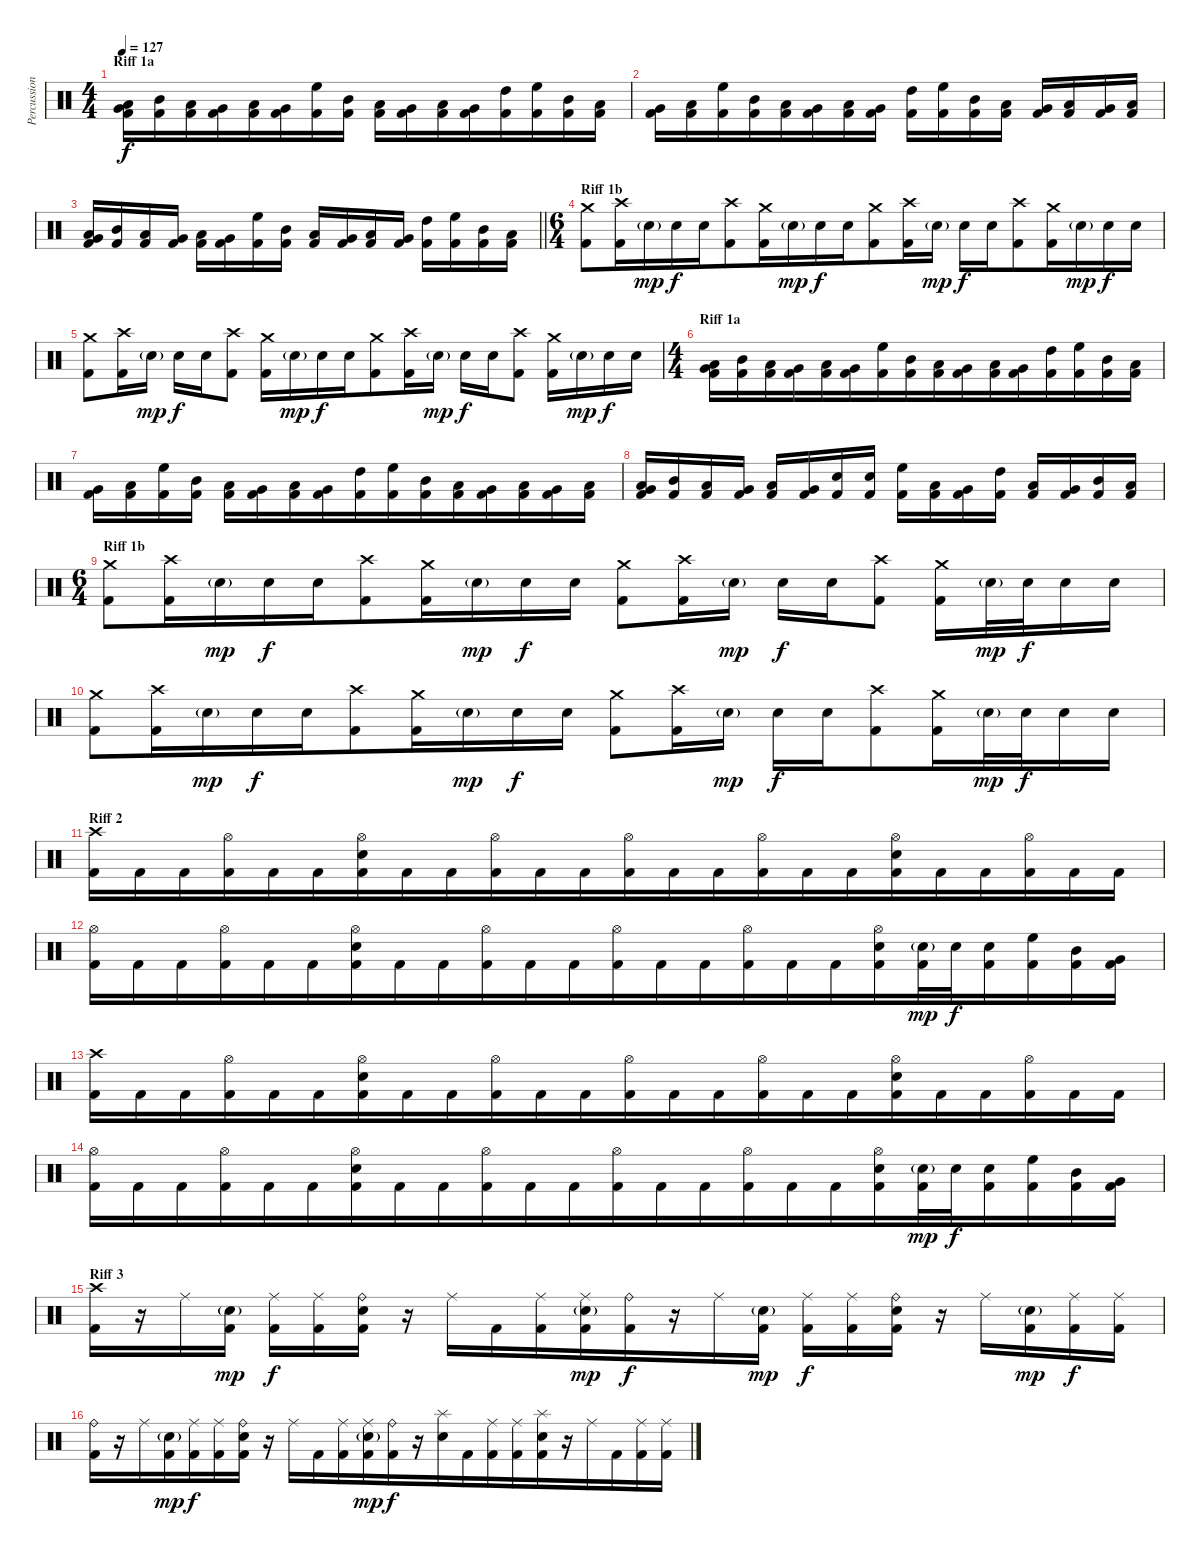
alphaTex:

\track ("Percussion" "Percussion") {instrument percussion}
\staff {score}
\articulation defaults
\ts (4 4)
\section ("" "Riff 1a")
\tempo 127
\clef neutral
\ks c
("Very Low Tom (hit)" "Low Floor Tom (hit)" "Kick (hit) 2").16{dy f} ("Mid Tom (hit)" "Kick (hit) 2").16{beam merge} ("Low Tom (hit)" "Kick (hit) 2").16 ("Very Low Tom (hit)" "Kick (hit) 2").16{beam merge} ("Low Floor Tom (hit)" "Kick (hit) 2").16{beam merge} ("Very Low Tom (hit)" "Kick (hit) 2").16 ("High Floor Tom (hit)" "Kick (hit) 2").16 ("Mid Tom (hit)" "Kick (hit) 2").16 ("Low Tom (hit)" "Kick (hit) 2").16{beam merge} ("Very Low Tom (hit)" "Kick (hit) 2").16 ("Low Floor Tom (hit)" "Kick (hit) 2").16{beam merge} ("Very Low Tom (hit)" "Kick (hit) 2").16{beam merge} ("High Tom (hit)" "Kick (hit) 2").16{beam merge} ("High Floor Tom (hit)" "Kick (hit) 2").16{beam merge} ("Mid Tom (hit)" "Kick (hit) 2").16{beam merge} ("Low Tom (hit)" "Kick (hit) 2").16 |
("Very Low Tom (hit)" "Kick (hit) 2").16{beam merge} ("Low Floor Tom (hit)" "Kick (hit) 2").16 ("High Floor Tom (hit)" "Kick (hit) 2").16{beam merge} ("Mid Tom (hit)" "Kick (hit) 2").16{beam merge} ("Low Tom (hit)" "Kick (hit) 2").16 ("Very Low Tom (hit)" "Kick (hit) 2").16 ("Low Floor Tom (hit)" "Kick (hit) 2").16 ("Very Low Tom (hit)" "Kick (hit) 2").16 ("High Tom (hit)" "Kick (hit) 2").16{beam merge} ("High Floor Tom (hit)" "Kick (hit) 2").16 ("Mid Tom (hit)" "Kick (hit) 2").16 ("Low Tom (hit)" "Kick (hit) 2").16 ("Very Low Tom (hit)" "Kick (hit) 2").16{beam merge} ("Low Floor Tom (hit)" "Kick (hit) 2").16 ("Very Low Tom (hit)" "Kick (hit) 2").16 ("Low Tom (hit)" "Kick (hit) 2").16 |
\barLineRight lightlight
("Very Low Tom (hit)" "Low Floor Tom (hit)" "Kick (hit) 2").16 ("Mid Tom (hit)" "Kick (hit) 2").16 ("Low Tom (hit)" "Kick (hit) 2").16 ("Very Low Tom (hit)" "Kick (hit) 2").16 ("Low Floor Tom (hit)" "Kick (hit) 2").16 ("Very Low Tom (hit)" "Kick (hit) 2").16 ("High Floor Tom (hit)" "Kick (hit) 2").16 ("Mid Tom (hit)" "Kick (hit) 2").16 ("Low Tom (hit)" "Kick (hit) 2").16 ("Very Low Tom (hit)" "Kick (hit) 2").16 ("Low Floor Tom (hit)" "Kick (hit) 2").16 ("Very Low Tom (hit)" "Kick (hit) 2").16 ("High Tom (hit)" "Kick (hit) 2").16 ("High Floor Tom (hit)" "Kick (hit) 2").16 ("Mid Tom (hit)" "Kick (hit) 2").16 ("Low Tom (hit)" "Kick (hit) 2").16 |
\ts (6 4)
\section ("" "Riff 1b")
("Crash medium (hit)" "Kick (hit) 2").8{beam merge} ("Crash high (hit)" "Kick (hit) 2").16{beam merge} "Electric Snare (hit)"{g}.16{dy mp beam merge} "Electric Snare (hit)".16{dy f beam merge} "Electric Snare (hit)".16{beam merge} ("Crash high (hit)" "Kick (hit) 2").8{beam merge} ("Crash medium (hit)" "Kick (hit) 2").16{beam merge} "Electric Snare (hit)"{g}.16{dy mp beam merge} "Electric Snare (hit)".16{dy f beam merge} "Electric Snare (hit)".16{beam merge} ("Crash medium (hit)" "Kick (hit) 2").8{beam merge} ("Crash high (hit)" "Kick (hit) 2").16{beam merge} "Electric Snare (hit)"{g}.16{dy mp} "Electric Snare (hit)".16{dy f} "Electric Snare (hit)".16 ("Crash high (hit)" "Kick (hit) 2").8{beam merge} ("Crash medium (hit)" "Kick (hit) 2").16{beam merge} "Electric Snare (hit)"{g}.16{dy mp} "Electric Snare (hit)".16{dy f} "Electric Snare (hit)".16 |
("Crash medium (hit)" "Kick (hit) 2").8 ("Crash high (hit)" "Kick (hit) 2").16{beam merge} "Electric Snare (hit)"{g}.16{dy mp} "Electric Snare (hit)".16{dy f beam merge} "Electric Snare (hit)".16{beam merge} ("Crash high (hit)" "Kick (hit) 2").8 ("Crash medium (hit)" "Kick (hit) 2").16{beam merge} "Electric Snare (hit)"{g}.16{dy mp beam merge} "Electric Snare (hit)".16{dy f beam merge} "Electric Snare (hit)".16{beam merge} ("Crash medium (hit)" "Kick (hit) 2").8 ("Crash high (hit)" "Kick (hit) 2").16{beam merge} "Electric Snare (hit)"{g}.16{dy mp} "Electric Snare (hit)".16{dy f} "Electric Snare (hit)".16{beam merge} ("Crash high (hit)" "Kick (hit) 2").8 ("Crash medium (hit)" "Kick (hit) 2").16 "Electric Snare (hit)"{g}.16{dy mp beam merge} "Electric Snare (hit)".16{dy f} "Electric Snare (hit)".16 |
\ts (4 4)
\section ("" "Riff 1a")
("Very Low Tom (hit)" "Low Floor Tom (hit)" "Kick (hit) 2").16{beam merge} ("Mid Tom (hit)" "Kick (hit) 2").16{beam merge} ("Low Tom (hit)" "Kick (hit) 2").16 ("Very Low Tom (hit)" "Kick (hit) 2").16{beam merge} ("Low Floor Tom (hit)" "Kick (hit) 2").16 ("Very Low Tom (hit)" "Kick (hit) 2").16{beam merge} ("High Floor Tom (hit)" "Kick (hit) 2").16{beam merge} ("Mid Tom (hit)" "Kick (hit) 2").16{beam merge} ("Low Tom (hit)" "Kick (hit) 2").16 ("Very Low Tom (hit)" "Kick (hit) 2").16{beam merge} ("Low Floor Tom (hit)" "Kick (hit) 2").16{beam merge} ("Very Low Tom (hit)" "Kick (hit) 2").16{beam merge} ("High Tom (hit)" "Kick (hit) 2").16{beam merge} ("High Floor Tom (hit)" "Kick (hit) 2").16{beam merge} ("Mid Tom (hit)" "Kick (hit) 2").16{beam merge} ("Low Tom (hit)" "Kick (hit) 2").16 |
("Very Low Tom (hit)" "Kick (hit) 2").16 ("Low Floor Tom (hit)" "Kick (hit) 2").16{beam merge} ("High Floor Tom (hit)" "Kick (hit) 2").16 ("Mid Tom (hit)" "Kick (hit) 2").16 ("Low Tom (hit)" "Kick (hit) 2").16{beam merge} ("Very Low Tom (hit)" "Kick (hit) 2").16{beam merge} ("Low Floor Tom (hit)" "Kick (hit) 2").16 ("Very Low Tom (hit)" "Kick (hit) 2").16{beam merge} ("High Tom (hit)" "Kick (hit) 2").16{beam merge} ("High Floor Tom (hit)" "Kick (hit) 2").16{beam merge} ("Mid Tom (hit)" "Kick (hit) 2").16{beam merge} ("Low Tom (hit)" "Kick (hit) 2").16{beam merge} ("Very Low Tom (hit)" "Kick (hit) 2").16 ("Low Floor Tom (hit)" "Kick (hit) 2").16 ("Very Low Tom (hit)" "Kick (hit) 2").16{beam merge} ("Low Tom (hit)" "Kick (hit) 2").16 |
("Very Low Tom (hit)" "Low Floor Tom (hit)" "Kick (hit) 2").16{beam merge} ("Mid Tom (hit)" "Kick (hit) 2").16{beam merge} ("Low Tom (hit)" "Kick (hit) 2").16 ("Very Low Tom (hit)" "Kick (hit) 2").16 ("Low Floor Tom (hit)" "Kick (hit) 2").16{beam merge} ("Very Low Tom (hit)" "Kick (hit) 2").16{beam merge} ("Electric Snare (hit)" "Kick (hit) 2").16{beam merge} ("Electric Snare (hit)" "Kick (hit) 2").16 ("High Floor Tom (hit)" "Kick (hit) 2").16{beam merge} ("Low Tom (hit)" "Kick (hit) 2").16 ("Very Low Tom (hit)" "Kick (hit) 2").16{beam merge} ("High Tom (hit)" "Kick (hit) 2").16 ("Low Tom (hit)" "Kick (hit) 2").16 ("Very Low Tom (hit)" "Kick (hit) 2").16{beam merge} ("Mid Tom (hit)" "Kick (hit) 2").16 ("Low Floor Tom (hit)" "Kick (hit) 2").16 |
\ts (6 4)
\section ("" "Riff 1b")
("Crash medium (hit)" "Kick (hit) 2").8{beam merge} ("Crash high (hit)" "Kick (hit) 2").16 "Electric Snare (hit)"{g}.16{dy mp beam merge} "Electric Snare (hit)".16{dy f} "Electric Snare (hit)".16 ("Crash high (hit)" "Kick (hit) 2").8{beam merge} ("Crash medium (hit)" "Kick (hit) 2").16 "Electric Snare (hit)"{g}.16{dy mp beam merge} "Electric Snare (hit)".16{dy f beam merge} "Electric Snare (hit)".16 ("Crash medium (hit)" "Kick (hit) 2").8 ("Crash high (hit)" "Kick (hit) 2").16 "Electric Snare (hit)"{g}.16{dy mp} "Electric Snare (hit)".16{dy f} "Electric Snare (hit)".16{beam merge} ("Crash high (hit)" "Kick (hit) 2").8 ("Crash medium (hit)" "Kick (hit) 2").16{beam merge} "Electric Snare (hit)"{g}.32{dy mp beam merge} "Electric Snare (hit)".32{dy f} "Electric Snare (hit)".16 "Electric Snare (hit)".16 |
("Crash medium (hit)" "Kick (hit) 2").8 ("Crash high (hit)" "Kick (hit) 2").16 "Electric Snare (hit)"{g}.16{dy mp beam merge} "Electric Snare (hit)".16{dy f} "Electric Snare (hit)".16{beam merge} ("Crash high (hit)" "Kick (hit) 2").8{beam merge} ("Crash medium (hit)" "Kick (hit) 2").16{beam merge} "Electric Snare (hit)"{g}.16{dy mp} "Electric Snare (hit)".16{dy f beam merge} "Electric Snare (hit)".16 ("Crash medium (hit)" "Kick (hit) 2").8 ("Crash high (hit)" "Kick (hit) 2").16 "Electric Snare (hit)"{g}.16{dy mp} "Electric Snare (hit)".16{dy f} "Electric Snare (hit)".16{beam merge} ("Crash high (hit)" "Kick (hit) 2").8{beam merge} ("Crash medium (hit)" "Kick (hit) 2").16{beam merge} "Electric Snare (hit)"{g}.32{dy mp} "Electric Snare (hit)".32{dy f} "Electric Snare (hit)".16 "Electric Snare (hit)".16 |
\section ("" "Riff 2")
("Crash high (hit)" "Kick (hit) 2").16{beam merge} "Kick (hit) 2".16{beam merge} "Kick (hit) 2".16 ("Hi-Hat (open)" "Kick (hit) 2").16{beam merge} "Kick (hit) 2".16 "Kick (hit) 2".16{beam merge} ("Hi-Hat (open)" "Electric Snare (hit)" "Kick (hit) 2").16{beam merge} "Kick (hit) 2".16{beam merge} "Kick (hit) 2".16{beam merge} ("Hi-Hat (open)" "Kick (hit) 2").16 "Kick (hit) 2".16{beam merge} "Kick (hit) 2".16{beam merge} ("Hi-Hat (open)" "Kick (hit) 2").16 "Kick (hit) 2".16{beam merge} "Kick (hit) 2".16 ("Hi-Hat (open)" "Kick (hit) 2").16{beam merge} "Kick (hit) 2".16{beam merge} "Kick (hit) 2".16{beam merge} ("Hi-Hat (open)" "Electric Snare (hit)" "Kick (hit) 2").16{beam merge} "Kick (hit) 2".16{beam merge} "Kick (hit) 2".16{beam merge} ("Hi-Hat (open)" "Kick (hit) 2").16{beam merge} "Kick (hit) 2".16{beam merge} "Kick (hit) 2".16 |
("Hi-Hat (open)" "Kick (hit) 2").16{beam merge} "Kick (hit) 2".16{beam merge} "Kick (hit) 2".16{beam merge} ("Hi-Hat (open)" "Kick (hit) 2").16{beam merge} "Kick (hit) 2".16{beam merge} "Kick (hit) 2".16{beam merge} ("Hi-Hat (open)" "Electric Snare (hit)" "Kick (hit) 2").16 "Kick (hit) 2".16{beam merge} "Kick (hit) 2".16{beam merge} ("Hi-Hat (open)" "Kick (hit) 2").16 "Kick (hit) 2".16{beam merge} "Kick (hit) 2".16{beam merge} ("Hi-Hat (open)" "Kick (hit) 2").16{beam merge} "Kick (hit) 2".16{beam merge} "Kick (hit) 2".16{beam merge} ("Hi-Hat (open)" "Kick (hit) 2").16{beam merge} "Kick (hit) 2".16{beam merge} "Kick (hit) 2".16 ("Hi-Hat (open)" "Electric Snare (hit)" "Kick (hit) 2").16{beam merge} ("Electric Snare (hit)"{g} "Kick (hit) 2").32{dy mp beam merge} "Electric Snare (hit)".32{dy f beam merge} ("Electric Snare (hit)" "Kick (hit) 2").16{beam merge} ("High Floor Tom (hit)" "Kick (hit) 2").16{beam merge} ("Mid Tom (hit)" "Kick (hit) 2").16{beam merge} ("Very Low Tom (hit)" "Kick (hit) 2").16 |
("Crash high (hit)" "Kick (hit) 2").16{beam merge} "Kick (hit) 2".16 "Kick (hit) 2".16{beam merge} ("Hi-Hat (open)" "Kick (hit) 2").16{beam merge} "Kick (hit) 2".16{beam merge} "Kick (hit) 2".16{beam merge} ("Hi-Hat (open)" "Electric Snare (hit)" "Kick (hit) 2").16{beam merge} "Kick (hit) 2".16{beam merge} "Kick (hit) 2".16{beam merge} ("Hi-Hat (open)" "Kick (hit) 2").16{beam merge} "Kick (hit) 2".16{beam merge} "Kick (hit) 2".16{beam merge} ("Hi-Hat (open)" "Kick (hit) 2").16{beam merge} "Kick (hit) 2".16{beam merge} "Kick (hit) 2".16{beam merge} ("Hi-Hat (open)" "Kick (hit) 2").16{beam merge} "Kick (hit) 2".16{beam merge} "Kick (hit) 2".16{beam merge} ("Hi-Hat (open)" "Electric Snare (hit)" "Kick (hit) 2").16{beam merge} "Kick (hit) 2".16{beam merge} "Kick (hit) 2".16 ("Hi-Hat (open)" "Kick (hit) 2").16{beam merge} "Kick (hit) 2".16{beam merge} "Kick (hit) 2".16 |
("Hi-Hat (open)" "Kick (hit) 2").16{beam merge} "Kick (hit) 2".16{beam merge} "Kick (hit) 2".16{beam merge} ("Hi-Hat (open)" "Kick (hit) 2").16{beam merge} "Kick (hit) 2".16{beam merge} "Kick (hit) 2".16{beam merge} ("Hi-Hat (open)" "Electric Snare (hit)" "Kick (hit) 2").16{beam merge} "Kick (hit) 2".16{beam merge} "Kick (hit) 2".16{beam merge} ("Hi-Hat (open)" "Kick (hit) 2").16{beam merge} "Kick (hit) 2".16{beam merge} "Kick (hit) 2".16{beam merge} ("Hi-Hat (open)" "Kick (hit) 2").16{beam merge} "Kick (hit) 2".16{beam merge} "Kick (hit) 2".16{beam merge} ("Hi-Hat (open)" "Kick (hit) 2").16{beam merge} "Kick (hit) 2".16{beam merge} "Kick (hit) 2".16{beam merge} ("Hi-Hat (open)" "Electric Snare (hit)" "Kick (hit) 2").16{beam merge} ("Electric Snare (hit)"{g} "Kick (hit) 2").32{dy mp beam merge} "Electric Snare (hit)".32{dy f beam merge} ("Electric Snare (hit)" "Kick (hit) 2").16{beam merge} ("High Floor Tom (hit)" "Kick (hit) 2").16{beam merge} ("Mid Tom (hit)" "Kick (hit) 2").16{beam merge} ("Very Low Tom (hit)" "Kick (hit) 2").16 |
\section ("" "Riff 3")
("Crash high (hit)" "Kick (hit) 2").16 r.16 "Ride (middle)".16{beam merge} ("Electric Snare (hit)"{g} "Kick (hit) 2").16{dy mp} ("Ride (middle)" "Kick (hit) 2").16{dy f} ("Ride (middle)" "Kick (hit) 2").16 ("Ride (bell)" "Electric Snare (hit)" "Kick (hit) 2").16 r.16 "Ride (middle)".16 "Kick (hit) 2".16{beam merge} ("Ride (middle)" "Kick (hit) 2").16 ("Ride (middle)" "Electric Snare (hit)"{g} "Kick (hit) 2").16{dy mp beam merge} ("Ride (bell)" "Kick (hit) 2").16{dy f beam merge} r.16{beam merge} "Ride (middle)".16{beam merge} ("Electric Snare (hit)"{g} "Kick (hit) 2").16{dy mp} ("Ride (middle)" "Kick (hit) 2").16{dy f} ("Ride (middle)" "Kick (hit) 2").16{beam merge} ("Ride (bell)" "Electric Snare (hit)" "Kick (hit) 2").16 r.16 "Ride (middle)".16 ("Electric Snare (hit)"{g} "Kick (hit) 2").16{dy mp beam merge} ("Ride (middle)" "Kick (hit) 2").16{dy f} ("Ride (middle)" "Kick (hit) 2").16 |
("Ride (bell)" "Kick (hit) 2").16 r.16 "Ride (middle)".16 ("Electric Snare (hit)"{g} "Kick (hit) 2").16{dy mp beam merge} ("Ride (middle)" "Kick (hit) 2").16{dy f} ("Ride (middle)" "Kick (hit) 2").16 ("Ride (bell)" "Electric Snare (hit)" "Kick (hit) 2").16 r.16 "Ride (middle)".16 "Kick (hit) 2".16{beam merge} ("Ride (middle)" "Kick (hit) 2").16 ("Ride (middle)" "Electric Snare (hit)"{g} "Kick (hit) 2").16{dy mp beam merge} ("Ride (bell)" "Kick (hit) 2").16{dy f} r.16{beam merge} ("Splash (hit)" "Electric Snare (hit)").16{beam merge} "Kick (hit) 2".16{beam merge} ("Ride (middle)" "Kick (hit) 2").16{beam merge} ("Ride (middle)" "Kick (hit) 2").16{beam merge} ("Splash (hit)" "Electric Snare (hit)" "Kick (hit) 2").16{beam merge} r.16 "Ride (middle)".16{beam merge} "Kick (hit) 2".16 ("Ride (middle)" "Kick (hit) 2").16{beam merge} ("Ride (middle)" "Kick (hit) 2").16
